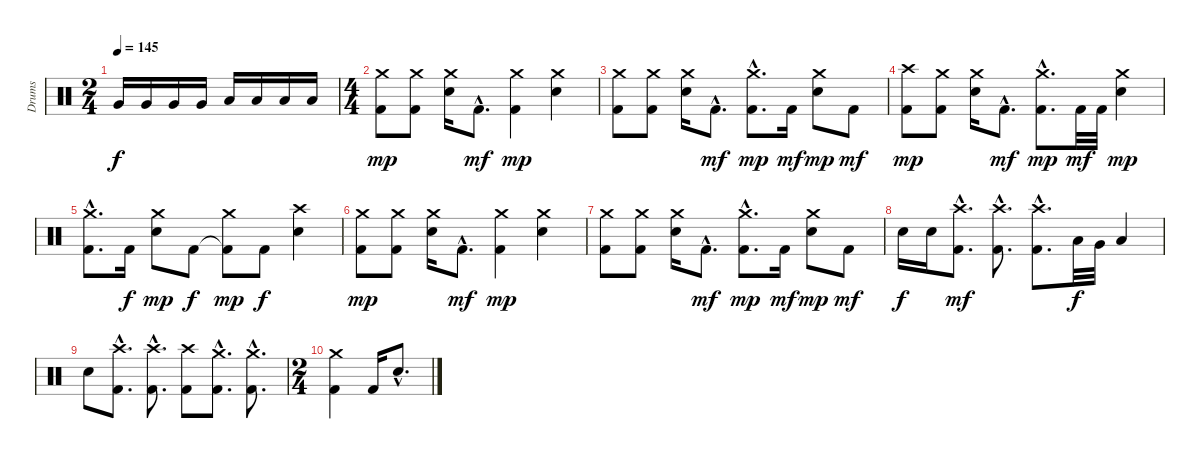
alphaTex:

\track ("Drums" "Drums") {instrument percussion}
\staff {score}
\articulation defaults
\ts (2 4)
\tempo 145
\clef neutral
\ks c "Very Low Tom (hit)".16{dy f} "Very Low Tom (hit)".16 "Very Low Tom (hit)".16 "Very Low Tom (hit)".16 "Low Floor Tom (hit)".16 "Low Floor Tom (hit)".16 "Low Floor Tom (hit)".16 "Low Floor Tom (hit)".16
|
\ts (4 4)
("Kick (hit) 2" "Crash medium (hit)").8{dy mp} ("Kick (hit) 2" "Crash medium (hit)").8 ("Electric Snare (hit)" "Crash medium (hit)").16 "Kick (hit) 2"{hac}.8{d dy mf} ("Kick (hit) 2" "Crash medium (hit)").4{dy mp} ("Electric Snare (hit)" "Crash medium (hit)").4 |
("Kick (hit) 2" "Crash medium (hit)").8 ("Kick (hit) 2" "Crash medium (hit)").8 ("Electric Snare (hit)" "Crash medium (hit)").16 "Kick (hit) 2"{hac}.8{d dy mf} ("Kick (hit) 2"{hac} "Crash medium (hit)"{hac}).8{d dy mp} "Kick (hit) 2".16{dy mf} ("Electric Snare (hit)" "Crash medium (hit)").8{dy mp} "Kick (hit) 2".8{dy mf} |
("Kick (hit) 2" "Crash high (hit)").8{dy mp} ("Kick (hit) 2" "Crash medium (hit)").8 ("Electric Snare (hit)" "Crash medium (hit)").16 "Kick (hit) 2"{hac}.8{d dy mf} ("Kick (hit) 2"{hac} "Crash medium (hit)"{hac}).8{d dy mp} "Kick (hit) 2".32{dy mf} "Kick (hit) 2".32 ("Electric Snare (hit)" "Crash medium (hit)").4{dy mp} |
("Kick (hit) 2"{hac} "Crash medium (hit)"{hac}).8{d} "Kick (hit) 2".16{dy f} ("Electric Snare (hit)" "Crash medium (hit)").8{dy mp} "Kick (hit) 2".8{dy f} ("Kick (hit) 2"{t} "Crash medium (hit)").8{dy mp} "Kick (hit) 2".8{dy f} ("Electric Snare (hit)" "Crash high (hit)").4 |
("Kick (hit) 2" "Crash medium (hit)").8{dy mp} ("Kick (hit) 2" "Crash medium (hit)").8 ("Electric Snare (hit)" "Crash medium (hit)").16 "Kick (hit) 2"{hac}.8{d dy mf} ("Kick (hit) 2" "Crash medium (hit)").4{dy mp} ("Electric Snare (hit)" "Crash medium (hit)").4 |
("Kick (hit) 2" "Crash medium (hit)").8 ("Kick (hit) 2" "Crash medium (hit)").8 ("Electric Snare (hit)" "Crash medium (hit)").16 "Kick (hit) 2"{hac}.8{d dy mf} ("Kick (hit) 2"{hac} "Crash medium (hit)"{hac}).8{d dy mp} "Kick (hit) 2".16{dy mf} ("Electric Snare (hit)" "Crash medium (hit)").8{dy mp} "Kick (hit) 2".8{dy mf} |
"Electric Snare (hit)".16{dy f} "Electric Snare (hit)".16 ("Kick (hit) 2"{hac} "Crash high (hit)"{hac}).8{d dy mf} ("Kick (hit) 2"{hac} "Crash high (hit)"{hac}).8{d} ("Kick (hit) 2"{hac} "Crash high (hit)"{hac}).8{d} "Low Tom (hit)".32{dy f} "Very Low Tom (hit)".32 "Low Floor Tom (hit)".4 |
"Electric Snare (hit)".8 ("Kick (hit) 2"{hac} "Crash high (hit)"{hac}).8{d} ("Kick (hit) 2"{hac} "Crash high (hit)"{hac}).8{d} ("Kick (hit) 2" "Crash high (hit)").8 ("Kick (hit) 2"{hac} "Crash medium (hit)"{hac}).8{d} ("Kick (hit) 2"{hac} "Crash medium (hit)"{hac}).8{d} |
\ts (2 4)
("Kick (hit) 2" "Crash medium (hit)").4 "Kick (hit) 2".16 "Electric Snare (hit)"{hac}.8{d}
